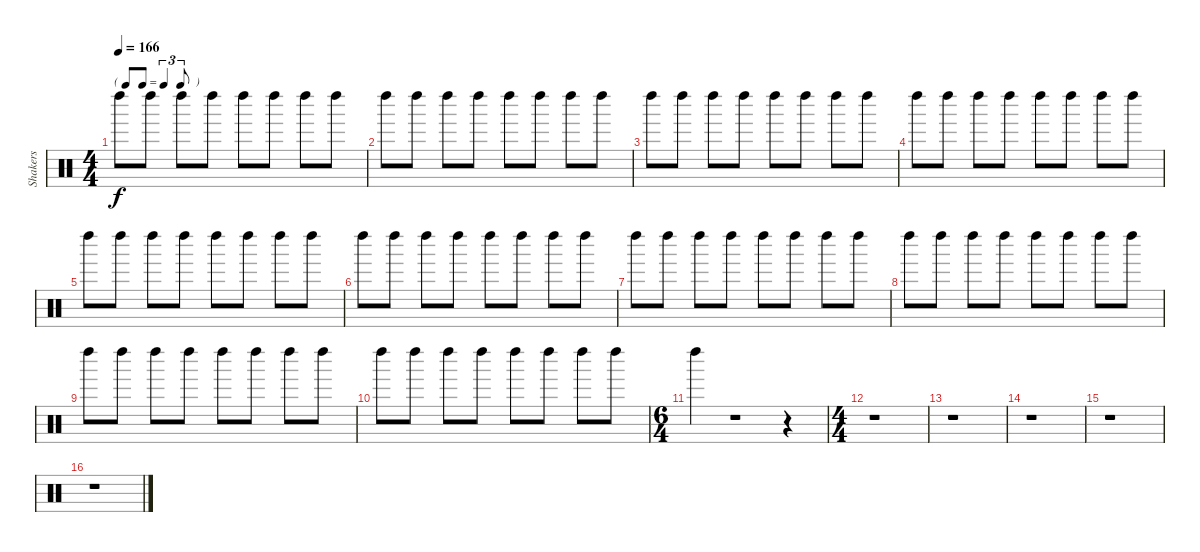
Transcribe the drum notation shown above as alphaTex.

\track ("Shakers" "Shakers") {instrument percussion}
\staff {score}
\articulation defaults
\ts (4 4)
\tf triplet8th
\tempo 166
\clef neutral
\ks c "Left Maraca (hit)".8{dy f} "Left Maraca (hit)".8 "Left Maraca (hit)".8 "Left Maraca (hit)".8 "Left Maraca (hit)".8 "Left Maraca (hit)".8 "Left Maraca (hit)".8 "Left Maraca (hit)".8
|
"Left Maraca (hit)".8 "Left Maraca (hit)".8 "Left Maraca (hit)".8 "Left Maraca (hit)".8 "Left Maraca (hit)".8 "Left Maraca (hit)".8 "Left Maraca (hit)".8 "Left Maraca (hit)".8 |
"Left Maraca (hit)".8 "Left Maraca (hit)".8 "Left Maraca (hit)".8 "Left Maraca (hit)".8 "Left Maraca (hit)".8 "Left Maraca (hit)".8 "Left Maraca (hit)".8 "Left Maraca (hit)".8 |
"Left Maraca (hit)".8 "Left Maraca (hit)".8 "Left Maraca (hit)".8 "Left Maraca (hit)".8 "Left Maraca (hit)".8 "Left Maraca (hit)".8 "Left Maraca (hit)".8 "Left Maraca (hit)".8 |
"Left Maraca (hit)".8 "Left Maraca (hit)".8 "Left Maraca (hit)".8 "Left Maraca (hit)".8 "Left Maraca (hit)".8 "Left Maraca (hit)".8 "Left Maraca (hit)".8 "Left Maraca (hit)".8 |
"Left Maraca (hit)".8 "Left Maraca (hit)".8 "Left Maraca (hit)".8 "Left Maraca (hit)".8 "Left Maraca (hit)".8 "Left Maraca (hit)".8 "Left Maraca (hit)".8 "Left Maraca (hit)".8 |
"Left Maraca (hit)".8 "Left Maraca (hit)".8 "Left Maraca (hit)".8 "Left Maraca (hit)".8 "Left Maraca (hit)".8 "Left Maraca (hit)".8 "Left Maraca (hit)".8 "Left Maraca (hit)".8 |
"Left Maraca (hit)".8 "Left Maraca (hit)".8 "Left Maraca (hit)".8 "Left Maraca (hit)".8 "Left Maraca (hit)".8 "Left Maraca (hit)".8 "Left Maraca (hit)".8 "Left Maraca (hit)".8 |
"Left Maraca (hit)".8 "Left Maraca (hit)".8 "Left Maraca (hit)".8 "Left Maraca (hit)".8 "Left Maraca (hit)".8 "Left Maraca (hit)".8 "Left Maraca (hit)".8 "Left Maraca (hit)".8 |
"Left Maraca (hit)".8 "Left Maraca (hit)".8 "Left Maraca (hit)".8 "Left Maraca (hit)".8 "Left Maraca (hit)".8 "Left Maraca (hit)".8 "Left Maraca (hit)".8 "Left Maraca (hit)".8 |
\ts (6 4)
"Left Maraca (hit)".4 r.1 r.4 |
\ts (4 4)
r.1 |
r.1 |
r.1 |
r.1 |
r.1
